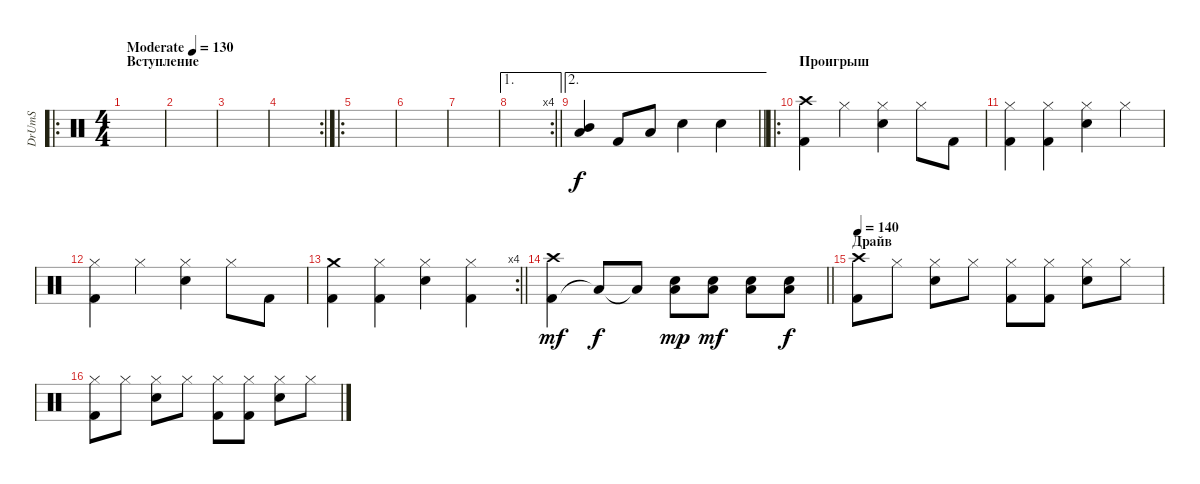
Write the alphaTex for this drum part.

\track ("DrUmS" "DrUmS") {instrument percussion}
\staff {score}
\articulation defaults
\ro
\ts (4 4)
\section ("" "Вступление")
\tempo (130 "Moderate")
\clef neutral
\ks c
|
|
|
\rc 2
|
\ro
|
|
|
\ae 1
\rc 4
\barLineRight lightlight
|
\ae 2
\barLineRight lightlight
("Low Tom (hit)" "Mid Tom (hit)").4 "Kick (hit) 2".8 "Low Tom (hit)".8 "Snare (hit) 2".4 "Snare (hit) 2".4 |
\ro
\section ("" "Проигрыш")
("Kick (hit) 2" "Crash high (hit)").4 "Hi-Hat (closed)".4 ("Hi-Hat (closed)" "Snare (hit) 2").4 "Hi-Hat (closed)".8 "Kick (hit) 2".8 |
("Kick (hit) 2" "Hi-Hat (closed)").4 ("Kick (hit) 2" "Hi-Hat (closed)").4 ("Hi-Hat (closed)" "Snare (hit) 2").4 "Hi-Hat (closed)".4 |
("Kick (hit) 2" "Hi-Hat (closed)").4 "Hi-Hat (closed)".4 ("Hi-Hat (closed)" "Snare (hit) 2").4 "Hi-Hat (closed)".8 "Kick (hit) 2".8 |
\rc 4
\barLineRight lightlight
("Kick (hit) 2" "Crash medium (hit)").4 ("Kick (hit) 2" "Hi-Hat (closed)").4 ("Hi-Hat (closed)" "Snare (hit) 2").4 ("Kick (hit) 2" "Hi-Hat (closed)").4 |
\barLineRight lightlight
("Kick (hit) 2" "Crash high (hit)").4{dy mf} "Low Floor Tom (hit)"{t}.8{dy f} "Low Floor Tom (hit)"{t}.8 ("Snare (hit) 2" "Low Floor Tom (hit)").8{dy mp} ("Snare (hit) 2" "Low Floor Tom (hit)").8{dy mf} ("Snare (hit) 2" "Low Floor Tom (hit)").8 ("Snare (hit) 2" "Low Floor Tom (hit)").8{dy f} |
\section ("" "Драйв")
\tempo 135
\tempo 140
("Kick (hit) 2" "Crash high (hit)").8 "Hi-Hat (closed)".8 ("Hi-Hat (closed)" "Snare (hit) 2").8 "Hi-Hat (closed)".8 ("Kick (hit) 2" "Hi-Hat (closed)").8 ("Kick (hit) 2" "Hi-Hat (closed)").8 ("Hi-Hat (closed)" "Snare (hit) 2").8 "Hi-Hat (closed)".8 |
("Kick (hit) 2" "Hi-Hat (closed)").8 "Hi-Hat (closed)".8 ("Hi-Hat (closed)" "Snare (hit) 2").8 "Hi-Hat (closed)".8 ("Kick (hit) 2" "Hi-Hat (closed)").8 ("Kick (hit) 2" "Hi-Hat (closed)").8 ("Hi-Hat (closed)" "Snare (hit) 2").8 "Hi-Hat (closed)".8
